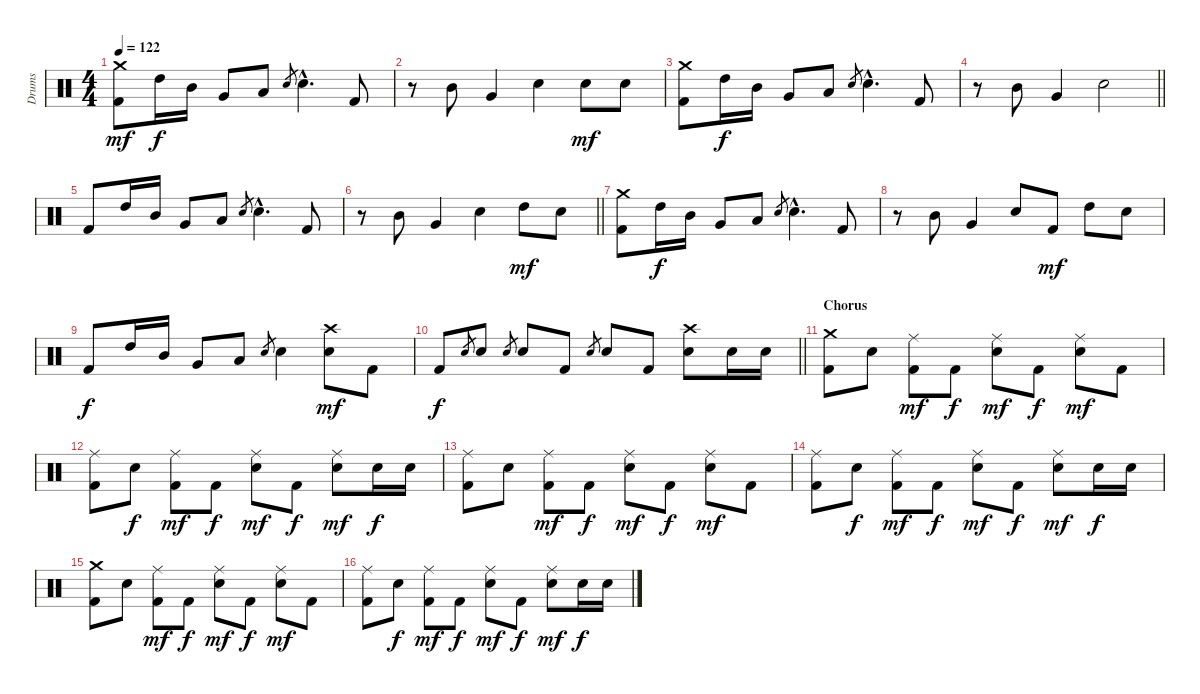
\track ("Drums" "Drums") {instrument percussion}
\staff {score}
\articulation defaults
\ts (4 4)
\tempo 122
\clef neutral
\ks c
("Kick (hit) 2" "Crash medium (hit)").8{dy mf} "High Tom (hit)".16{dy f} "Mid Tom (hit)".16 "Very Low Tom (hit)".8 "Low Floor Tom (hit)".8 "Snare (hit) 2".8{gr} "Snare (hit) 2"{hac}.4{d} "Kick (hit) 2".8 |
r.8 "Mid Tom (hit)".8 "Very Low Tom (hit)".4 "Snare (hit) 2".4 "Snare (hit) 2".8{dy mf} "Snare (hit) 2".8 |
("Kick (hit) 2" "Crash medium (hit)").8 "High Tom (hit)".16{dy f} "Mid Tom (hit)".16 "Very Low Tom (hit)".8 "Low Floor Tom (hit)".8 "Snare (hit) 2".8{gr} "Snare (hit) 2"{hac}.4{d} "Kick (hit) 2".8 |
\barLineRight lightlight
r.8 "Mid Tom (hit)".8 "Very Low Tom (hit)".4 "Snare (hit) 2".2 |
"Kick (hit) 2".8 "High Tom (hit)".16 "Mid Tom (hit)".16 "Very Low Tom (hit)".8 "Low Floor Tom (hit)".8 "Snare (hit) 2".8{gr} "Snare (hit) 2"{hac}.4{d} "Kick (hit) 2".8 |
\barLineRight lightlight
r.8 "Mid Tom (hit)".8 "Very Low Tom (hit)".4 "Snare (hit) 2".4 "High Tom (hit)".8{dy mf} "Snare (hit) 2".8 |
("Kick (hit) 2" "Crash medium (hit)").8 "High Tom (hit)".16{dy f} "Mid Tom (hit)".16 "Very Low Tom (hit)".8 "Low Floor Tom (hit)".8 "Snare (hit) 2".8{gr} "Snare (hit) 2"{hac}.4{d} "Kick (hit) 2".8 |
r.8 "Mid Tom (hit)".8 "Very Low Tom (hit)".4 "Snare (hit) 2".8 "Kick (hit) 2".8{dy mf} "High Tom (hit)".8 "Snare (hit) 2".8 |
"Kick (hit) 2".8{dy f} "High Tom (hit)".16 "Mid Tom (hit)".16 "Very Low Tom (hit)".8 "Low Floor Tom (hit)".8 "Snare (hit) 2".8{gr} "Snare (hit) 2".4 ("Snare (hit) 2" "Crash high (hit)").8{dy mf} "Kick (hit) 2".8 |
\barLineRight lightlight "Kick (hit) 2".8{dy f} "Snare (hit) 2".8{gr} "Snare (hit) 2".8 "Snare (hit) 2".8{gr} "Snare (hit) 2".8 "Kick (hit) 2".8 "Snare (hit) 2".8{gr} "Snare (hit) 2".8 "Kick (hit) 2".8
("Crash high (hit)" "Snare (hit) 2").8 "Snare (hit) 2".16 "Snare (hit) 2".16 |
\section ("" "Chorus")
("Crash medium (hit)" "Kick (hit) 2").8 "Snare (hit) 2".8 ("Kick (hit) 2" "Ride (middle)").8{dy mf} "Kick (hit) 2".8{dy f} ("Snare (hit) 2" "Ride (middle)").8{dy mf} "Kick (hit) 2".8{dy f} ("Snare (hit) 2" "Ride (middle)").8{dy mf} "Kick (hit) 2".8 |
("Kick (hit) 2" "Ride (middle)").8 "Snare (hit) 2".8{dy f} ("Kick (hit) 2" "Ride (middle)").8{dy mf} "Kick (hit) 2".8{dy f} ("Snare (hit) 2" "Ride (middle)").8{dy mf} "Kick (hit) 2".8{dy f} ("Snare (hit) 2" "Ride (middle)").8{dy mf} "Snare (hit) 2".16{dy f} "Snare (hit) 2".16 |
("Ride (middle)" "Kick (hit) 2").8 "Snare (hit) 2".8 ("Kick (hit) 2" "Ride (middle)").8{dy mf} "Kick (hit) 2".8{dy f} ("Snare (hit) 2" "Ride (middle)").8{dy mf} "Kick (hit) 2".8{dy f} ("Snare (hit) 2" "Ride (middle)").8{dy mf} "Kick (hit) 2".8 |
("Kick (hit) 2" "Ride (middle)").8 "Snare (hit) 2".8{dy f} ("Kick (hit) 2" "Ride (middle)").8{dy mf} "Kick (hit) 2".8{dy f} ("Snare (hit) 2" "Ride (middle)").8{dy mf} "Kick (hit) 2".8{dy f} ("Snare (hit) 2" "Ride (middle)").8{dy mf} "Snare (hit) 2".16{dy f} "Snare (hit) 2".16 |
("Crash medium (hit)" "Kick (hit) 2").8 "Snare (hit) 2".8 ("Kick (hit) 2" "Ride (middle)").8{dy mf} "Kick (hit) 2".8{dy f} ("Snare (hit) 2" "Ride (middle)").8{dy mf} "Kick (hit) 2".8{dy f} ("Snare (hit) 2" "Ride (middle)").8{dy mf} "Kick (hit) 2".8 |
("Kick (hit) 2" "Ride (middle)").8 "Snare (hit) 2".8{dy f} ("Kick (hit) 2" "Ride (middle)").8{dy mf} "Kick (hit) 2".8{dy f} ("Snare (hit) 2" "Ride (middle)").8{dy mf} "Kick (hit) 2".8{dy f} ("Snare (hit) 2" "Ride (middle)").8{dy mf} "Snare (hit) 2".16{dy f} "Snare (hit) 2".16
